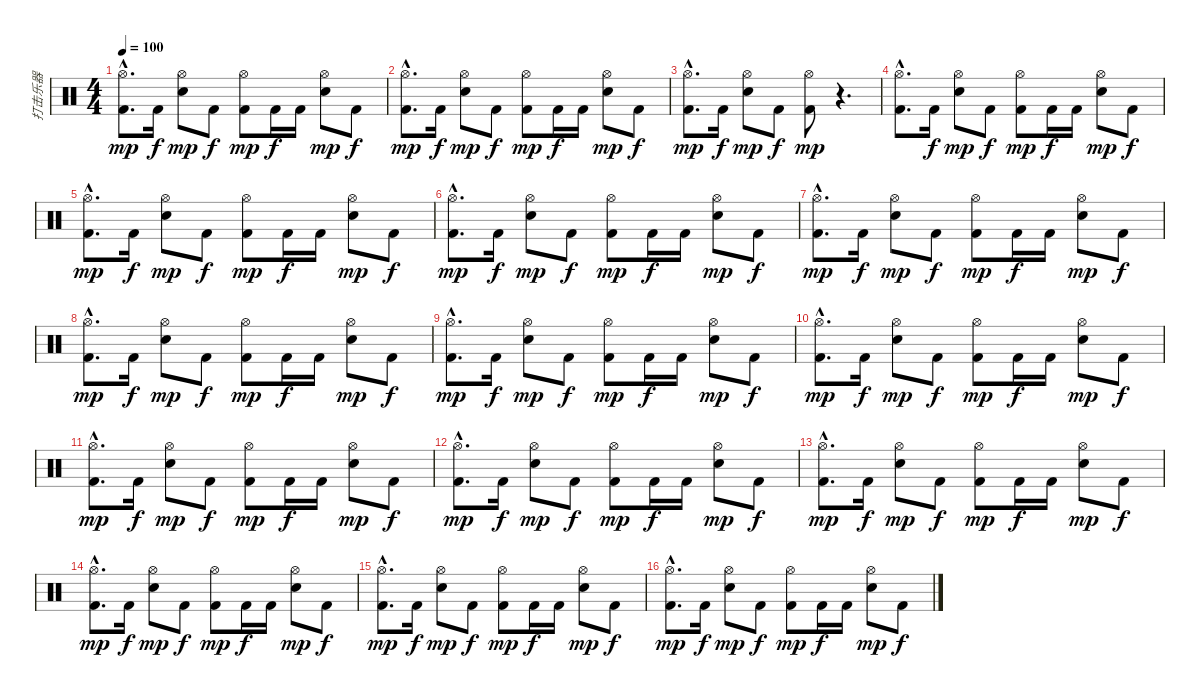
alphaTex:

\track ("打击乐器" "打击乐器") {instrument percussion}
\staff {score}
\articulation defaults
\ts (4 4)
\tempo 100
\clef neutral
\ks c
("Kick (hit) 2"{hac} "Hi-Hat (open)"{hac}).8{d dy mp} "Kick (hit) 2".16{dy f} ("Electric Snare (hit)" "Hi-Hat (open)").8{dy mp} "Kick (hit) 2".8{dy f} ("Kick (hit) 2" "Hi-Hat (open)").8{dy mp} "Kick (hit) 2".16{dy f} "Kick (hit) 2".16 ("Electric Snare (hit)" "Hi-Hat (open)").8{dy mp} "Kick (hit) 2".8{dy f} |
("Kick (hit) 2"{hac} "Hi-Hat (open)"{hac}).8{d dy mp} "Kick (hit) 2".16{dy f} ("Electric Snare (hit)" "Hi-Hat (open)").8{dy mp} "Kick (hit) 2".8{dy f} ("Kick (hit) 2" "Hi-Hat (open)").8{dy mp} "Kick (hit) 2".16{dy f} "Kick (hit) 2".16 ("Electric Snare (hit)" "Hi-Hat (open)").8{dy mp} "Kick (hit) 2".8{dy f} |
("Kick (hit) 2"{hac} "Hi-Hat (open)"{hac}).8{d dy mp} "Kick (hit) 2".16{dy f} ("Electric Snare (hit)" "Hi-Hat (open)").8{dy mp} "Kick (hit) 2".8{dy f} ("Kick (hit) 2" "Hi-Hat (open)").8{dy mp} r.4{d} |
("Kick (hit) 2"{hac} "Hi-Hat (open)"{hac}).8{d} "Kick (hit) 2".16{dy f} ("Electric Snare (hit)" "Hi-Hat (open)").8{dy mp} "Kick (hit) 2".8{dy f} ("Kick (hit) 2" "Hi-Hat (open)").8{dy mp} "Kick (hit) 2".16{dy f} "Kick (hit) 2".16 ("Electric Snare (hit)" "Hi-Hat (open)").8{dy mp} "Kick (hit) 2".8{dy f} |
("Kick (hit) 2"{hac} "Hi-Hat (open)"{hac}).8{d dy mp} "Kick (hit) 2".16{dy f} ("Electric Snare (hit)" "Hi-Hat (open)").8{dy mp} "Kick (hit) 2".8{dy f} ("Kick (hit) 2" "Hi-Hat (open)").8{dy mp} "Kick (hit) 2".16{dy f} "Kick (hit) 2".16 ("Electric Snare (hit)" "Hi-Hat (open)").8{dy mp} "Kick (hit) 2".8{dy f} |
("Kick (hit) 2"{hac} "Hi-Hat (open)"{hac}).8{d dy mp} "Kick (hit) 2".16{dy f} ("Electric Snare (hit)" "Hi-Hat (open)").8{dy mp} "Kick (hit) 2".8{dy f} ("Kick (hit) 2" "Hi-Hat (open)").8{dy mp} "Kick (hit) 2".16{dy f} "Kick (hit) 2".16 ("Electric Snare (hit)" "Hi-Hat (open)").8{dy mp} "Kick (hit) 2".8{dy f} |
("Kick (hit) 2"{hac} "Hi-Hat (open)"{hac}).8{d dy mp} "Kick (hit) 2".16{dy f} ("Electric Snare (hit)" "Hi-Hat (open)").8{dy mp} "Kick (hit) 2".8{dy f} ("Kick (hit) 2" "Hi-Hat (open)").8{dy mp} "Kick (hit) 2".16{dy f} "Kick (hit) 2".16 ("Electric Snare (hit)" "Hi-Hat (open)").8{dy mp} "Kick (hit) 2".8{dy f} |
("Kick (hit) 2"{hac} "Hi-Hat (open)"{hac}).8{d dy mp} "Kick (hit) 2".16{dy f} ("Electric Snare (hit)" "Hi-Hat (open)").8{dy mp} "Kick (hit) 2".8{dy f} ("Kick (hit) 2" "Hi-Hat (open)").8{dy mp} "Kick (hit) 2".16{dy f} "Kick (hit) 2".16 ("Electric Snare (hit)" "Hi-Hat (open)").8{dy mp} "Kick (hit) 2".8{dy f} |
("Kick (hit) 2"{hac} "Hi-Hat (open)"{hac}).8{d dy mp} "Kick (hit) 2".16{dy f} ("Electric Snare (hit)" "Hi-Hat (open)").8{dy mp} "Kick (hit) 2".8{dy f} ("Kick (hit) 2" "Hi-Hat (open)").8{dy mp} "Kick (hit) 2".16{dy f} "Kick (hit) 2".16 ("Electric Snare (hit)" "Hi-Hat (open)").8{dy mp} "Kick (hit) 2".8{dy f} |
("Kick (hit) 2"{hac} "Hi-Hat (open)"{hac}).8{d dy mp} "Kick (hit) 2".16{dy f} ("Electric Snare (hit)" "Hi-Hat (open)").8{dy mp} "Kick (hit) 2".8{dy f} ("Kick (hit) 2" "Hi-Hat (open)").8{dy mp} "Kick (hit) 2".16{dy f} "Kick (hit) 2".16 ("Electric Snare (hit)" "Hi-Hat (open)").8{dy mp} "Kick (hit) 2".8{dy f} |
("Kick (hit) 2"{hac} "Hi-Hat (open)"{hac}).8{d dy mp} "Kick (hit) 2".16{dy f} ("Electric Snare (hit)" "Hi-Hat (open)").8{dy mp} "Kick (hit) 2".8{dy f} ("Kick (hit) 2" "Hi-Hat (open)").8{dy mp} "Kick (hit) 2".16{dy f} "Kick (hit) 2".16 ("Electric Snare (hit)" "Hi-Hat (open)").8{dy mp} "Kick (hit) 2".8{dy f} |
("Kick (hit) 2"{hac} "Hi-Hat (open)"{hac}).8{d dy mp} "Kick (hit) 2".16{dy f} ("Electric Snare (hit)" "Hi-Hat (open)").8{dy mp} "Kick (hit) 2".8{dy f} ("Kick (hit) 2" "Hi-Hat (open)").8{dy mp} "Kick (hit) 2".16{dy f} "Kick (hit) 2".16 ("Electric Snare (hit)" "Hi-Hat (open)").8{dy mp} "Kick (hit) 2".8{dy f} |
("Kick (hit) 2"{hac} "Hi-Hat (open)"{hac}).8{d dy mp} "Kick (hit) 2".16{dy f} ("Electric Snare (hit)" "Hi-Hat (open)").8{dy mp} "Kick (hit) 2".8{dy f} ("Kick (hit) 2" "Hi-Hat (open)").8{dy mp} "Kick (hit) 2".16{dy f} "Kick (hit) 2".16 ("Electric Snare (hit)" "Hi-Hat (open)").8{dy mp} "Kick (hit) 2".8{dy f} |
("Kick (hit) 2"{hac} "Hi-Hat (open)"{hac}).8{d dy mp} "Kick (hit) 2".16{dy f} ("Electric Snare (hit)" "Hi-Hat (open)").8{dy mp} "Kick (hit) 2".8{dy f} ("Kick (hit) 2" "Hi-Hat (open)").8{dy mp} "Kick (hit) 2".16{dy f} "Kick (hit) 2".16 ("Electric Snare (hit)" "Hi-Hat (open)").8{dy mp} "Kick (hit) 2".8{dy f} |
("Kick (hit) 2"{hac} "Hi-Hat (open)"{hac}).8{d dy mp} "Kick (hit) 2".16{dy f} ("Electric Snare (hit)" "Hi-Hat (open)").8{dy mp} "Kick (hit) 2".8{dy f} ("Kick (hit) 2" "Hi-Hat (open)").8{dy mp} "Kick (hit) 2".16{dy f} "Kick (hit) 2".16 ("Electric Snare (hit)" "Hi-Hat (open)").8{dy mp} "Kick (hit) 2".8{dy f} |
("Kick (hit) 2"{hac} "Hi-Hat (open)"{hac}).8{d dy mp} "Kick (hit) 2".16{dy f} ("Electric Snare (hit)" "Hi-Hat (open)").8{dy mp} "Kick (hit) 2".8{dy f} ("Kick (hit) 2" "Hi-Hat (open)").8{dy mp} "Kick (hit) 2".16{dy f} "Kick (hit) 2".16 ("Electric Snare (hit)" "Hi-Hat (open)").8{dy mp} "Kick (hit) 2".8{dy f}
